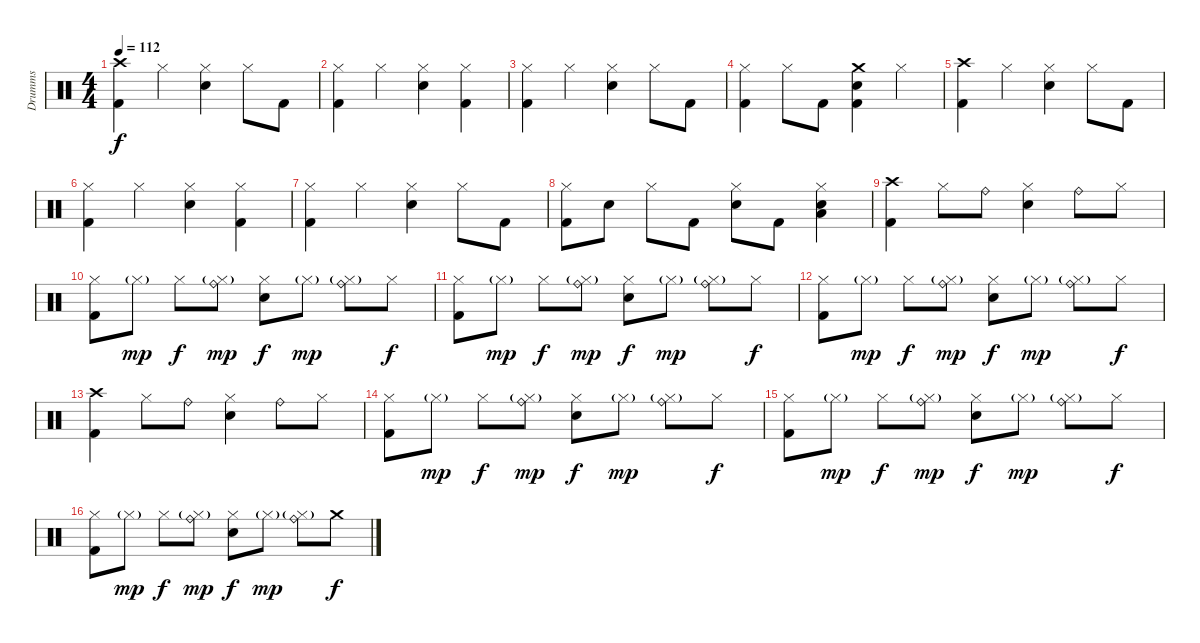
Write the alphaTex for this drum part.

\track ("Drumms" "Drumms") {instrument percussion}
\staff {score}
\articulation defaults
\ts (4 4)
\tempo 112
\clef neutral
\ks c
("Kick (hit) 2" "Crash high (hit)").4{dy f} "Hi-Hat (closed)".4 ("Hi-Hat (closed)" "Snare (hit) 2").4 "Hi-Hat (closed)".8 "Kick (hit) 2".8 |
("Kick (hit) 2" "Hi-Hat (closed)").4 "Hi-Hat (closed)".4 ("Hi-Hat (closed)" "Snare (hit) 2").4 ("Kick (hit) 2" "Hi-Hat (closed)").4 |
("Kick (hit) 2" "Hi-Hat (closed)").4 "Hi-Hat (closed)".4 ("Hi-Hat (closed)" "Snare (hit) 2").4 "Hi-Hat (closed)".8 "Kick (hit) 2".8 |
("Kick (hit) 2" "Hi-Hat (closed)").4 "Hi-Hat (closed)".8 "Kick (hit) 2".8 ("Kick (hit) 2" "Crash medium (hit)" "Snare (hit) 2").4 "Hi-Hat (closed)".4 |
("Kick (hit) 2" "Crash high (hit)").4 "Hi-Hat (closed)".4 ("Hi-Hat (closed)" "Snare (hit) 2").4 "Hi-Hat (closed)".8 "Kick (hit) 2".8 |
("Kick (hit) 2" "Hi-Hat (closed)").4 "Hi-Hat (closed)".4 ("Hi-Hat (closed)" "Snare (hit) 2").4 ("Kick (hit) 2" "Hi-Hat (closed)").4 |
("Kick (hit) 2" "Hi-Hat (closed)").4 "Hi-Hat (closed)".4 ("Hi-Hat (closed)" "Snare (hit) 2").4 "Hi-Hat (closed)".8 "Kick (hit) 2".8 |
("Kick (hit) 2" "Hi-Hat (closed)").8 "Snare (hit) 2".8 "Hi-Hat (closed)".8 "Kick (hit) 2".8 ("Hi-Hat (closed)" "Snare (hit) 2").8 "Kick (hit) 2".8 ("Low Tom (hit)" "Hi-Hat (closed)" "Snare (hit) 2").4 |
("Kick (hit) 2" "Crash high (hit)").4 "Hi-Hat (closed)".8 "Ride (bell)".8 ("Hi-Hat (closed)" "Snare (hit) 2").4 "Ride (bell)".8 "Hi-Hat (closed)".8 |
("Kick (hit) 2" "Hi-Hat (closed)").8 "Hi-Hat (closed)"{g}.8{dy mp} "Hi-Hat (closed)".8{dy f} ("Ride (bell)" "Hi-Hat (closed)"{g}).8{dy mp} ("Hi-Hat (closed)" "Snare (hit) 2").8{dy f} "Hi-Hat (closed)"{g}.8{dy mp} ("Ride (bell)" "Hi-Hat (closed)"{g}).8 "Hi-Hat (closed)".8{dy f} |
("Kick (hit) 2" "Hi-Hat (closed)").8 "Hi-Hat (closed)"{g}.8{dy mp} "Hi-Hat (closed)".8{dy f} ("Ride (bell)" "Hi-Hat (closed)"{g}).8{dy mp} ("Hi-Hat (closed)" "Snare (hit) 2").8{dy f} "Hi-Hat (closed)"{g}.8{dy mp} ("Ride (bell)" "Hi-Hat (closed)"{g}).8 "Hi-Hat (closed)".8{dy f} |
("Kick (hit) 2" "Hi-Hat (closed)").8 "Hi-Hat (closed)"{g}.8{dy mp} "Hi-Hat (closed)".8{dy f} ("Ride (bell)" "Hi-Hat (closed)"{g}).8{dy mp} ("Hi-Hat (closed)" "Snare (hit) 2").8{dy f} "Hi-Hat (closed)"{g}.8{dy mp} ("Ride (bell)" "Hi-Hat (closed)"{g}).8 "Hi-Hat (closed)".8{dy f} |
("Kick (hit) 2" "Crash high (hit)").4 "Hi-Hat (closed)".8 "Ride (bell)".8 ("Hi-Hat (closed)" "Snare (hit) 2").4 "Ride (bell)".8 "Hi-Hat (closed)".8 |
("Kick (hit) 2" "Hi-Hat (closed)").8 "Hi-Hat (closed)"{g}.8{dy mp} "Hi-Hat (closed)".8{dy f} ("Ride (bell)" "Hi-Hat (closed)"{g}).8{dy mp} ("Hi-Hat (closed)" "Snare (hit) 2").8{dy f} "Hi-Hat (closed)"{g}.8{dy mp} ("Ride (bell)" "Hi-Hat (closed)"{g}).8 "Hi-Hat (closed)".8{dy f} |
("Kick (hit) 2" "Hi-Hat (closed)").8 "Hi-Hat (closed)"{g}.8{dy mp} "Hi-Hat (closed)".8{dy f} ("Ride (bell)" "Hi-Hat (closed)"{g}).8{dy mp} ("Hi-Hat (closed)" "Snare (hit) 2").8{dy f} "Hi-Hat (closed)"{g}.8{dy mp} ("Ride (bell)" "Hi-Hat (closed)"{g}).8 "Hi-Hat (closed)".8{dy f} |
("Kick (hit) 2" "Hi-Hat (closed)").8 "Hi-Hat (closed)"{g}.8{dy mp} "Hi-Hat (closed)".8{dy f} ("Ride (bell)" "Hi-Hat (closed)"{g}).8{dy mp} ("Hi-Hat (closed)" "Snare (hit) 2").8{dy f} "Hi-Hat (closed)"{g}.8{dy mp} ("Ride (bell)" "Hi-Hat (closed)"{g}).8 "Crash medium (hit)".8{dy f}
